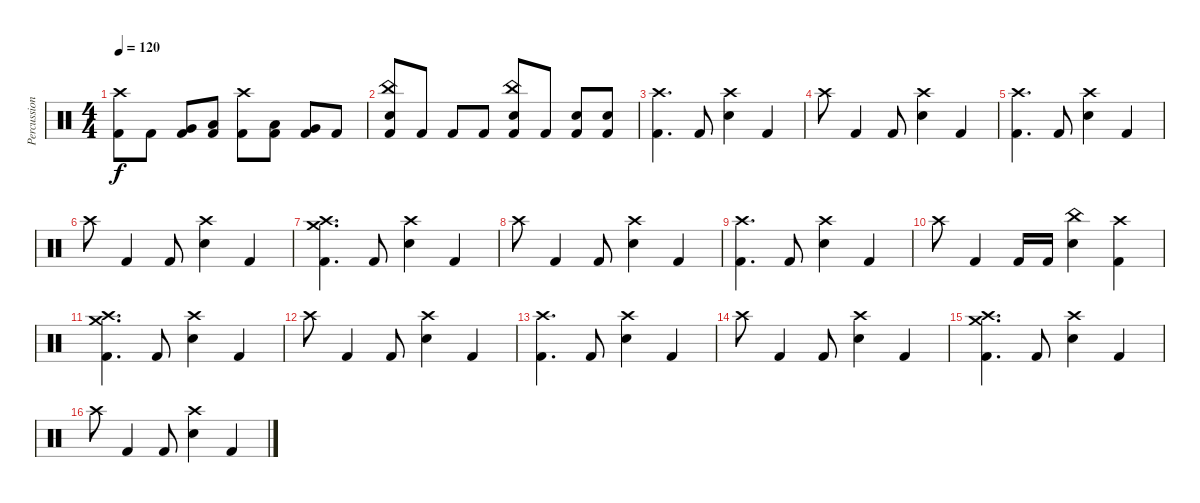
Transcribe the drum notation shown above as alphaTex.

\track ("Percussion" "Percussion") {instrument percussion}
\staff {score}
\articulation defaults
\ts (4 4)
\tempo 120
\clef neutral
\ks c
("Crash high (hit)" "Kick (hit) 2").8{dy f} "Kick (hit) 2".8 ("Very Low Tom (hit)" "Kick (hit) 2").8 ("Low Tom (hit)" "Kick (hit) 2").8 ("Crash high (hit)" "Kick (hit) 2").8 ("Low Tom (hit)" "Kick (hit) 2").8 ("Very Low Tom (hit)" "Kick (hit) 2").8 "Kick (hit) 2".8 |
("China (hit)" "Electric Snare (hit)" "Kick (hit) 2").8 "Kick (hit) 2".8 "Kick (hit) 2".8 "Kick (hit) 2".8 ("China (hit)" "Electric Snare (hit)" "Kick (hit) 2").8 "Kick (hit) 2".8 ("Electric Snare (hit)" "Kick (hit) 2").8 ("Electric Snare (hit)" "Kick (hit) 2").8 |
("Crash high (hit)" "Kick (hit) 2").4{d} "Kick (hit) 2".8 ("Crash high (hit)" "Electric Snare (hit)").4 "Kick (hit) 2".4 |
"Crash high (hit)".8 "Kick (hit) 2".4 "Kick (hit) 2".8 ("Crash high (hit)" "Electric Snare (hit)").4 "Kick (hit) 2".4 |
("Crash high (hit)" "Kick (hit) 2").4{d} "Kick (hit) 2".8 ("Crash high (hit)" "Electric Snare (hit)").4 "Kick (hit) 2".4 |
"Crash high (hit)".8 "Kick (hit) 2".4 "Kick (hit) 2".8 ("Crash high (hit)" "Electric Snare (hit)").4 "Kick (hit) 2".4 |
("Crash high (hit)" "Crash medium (hit)" "Kick (hit) 2").4{d} "Kick (hit) 2".8 ("Crash high (hit)" "Electric Snare (hit)").4 "Kick (hit) 2".4 |
"Crash high (hit)".8 "Kick (hit) 2".4 "Kick (hit) 2".8 ("Crash high (hit)" "Electric Snare (hit)").4 "Kick (hit) 2".4 |
("Crash high (hit)" "Kick (hit) 2").4{d} "Kick (hit) 2".8 ("Crash high (hit)" "Electric Snare (hit)").4 "Kick (hit) 2".4 |
"Crash high (hit)".8 "Kick (hit) 2".4 "Kick (hit) 2".16 "Kick (hit) 2".16 ("China (hit)" "Electric Snare (hit)").4 ("Crash high (hit)" "Kick (hit) 2").4 |
("Crash high (hit)" "Crash medium (hit)" "Kick (hit) 2").4{d} "Kick (hit) 2".8 ("Crash high (hit)" "Electric Snare (hit)").4 "Kick (hit) 2".4 |
"Crash high (hit)".8 "Kick (hit) 2".4 "Kick (hit) 2".8 ("Crash high (hit)" "Electric Snare (hit)").4 "Kick (hit) 2".4 |
("Crash high (hit)" "Kick (hit) 2").4{d} "Kick (hit) 2".8 ("Crash high (hit)" "Electric Snare (hit)").4 "Kick (hit) 2".4 |
"Crash high (hit)".8 "Kick (hit) 2".4 "Kick (hit) 2".8 ("Crash high (hit)" "Electric Snare (hit)").4 "Kick (hit) 2".4 |
("Crash high (hit)" "Crash medium (hit)" "Kick (hit) 2").4{d} "Kick (hit) 2".8 ("Crash high (hit)" "Electric Snare (hit)").4 "Kick (hit) 2".4 |
"Crash high (hit)".8 "Kick (hit) 2".4 "Kick (hit) 2".8 ("Crash high (hit)" "Electric Snare (hit)").4 "Kick (hit) 2".4
